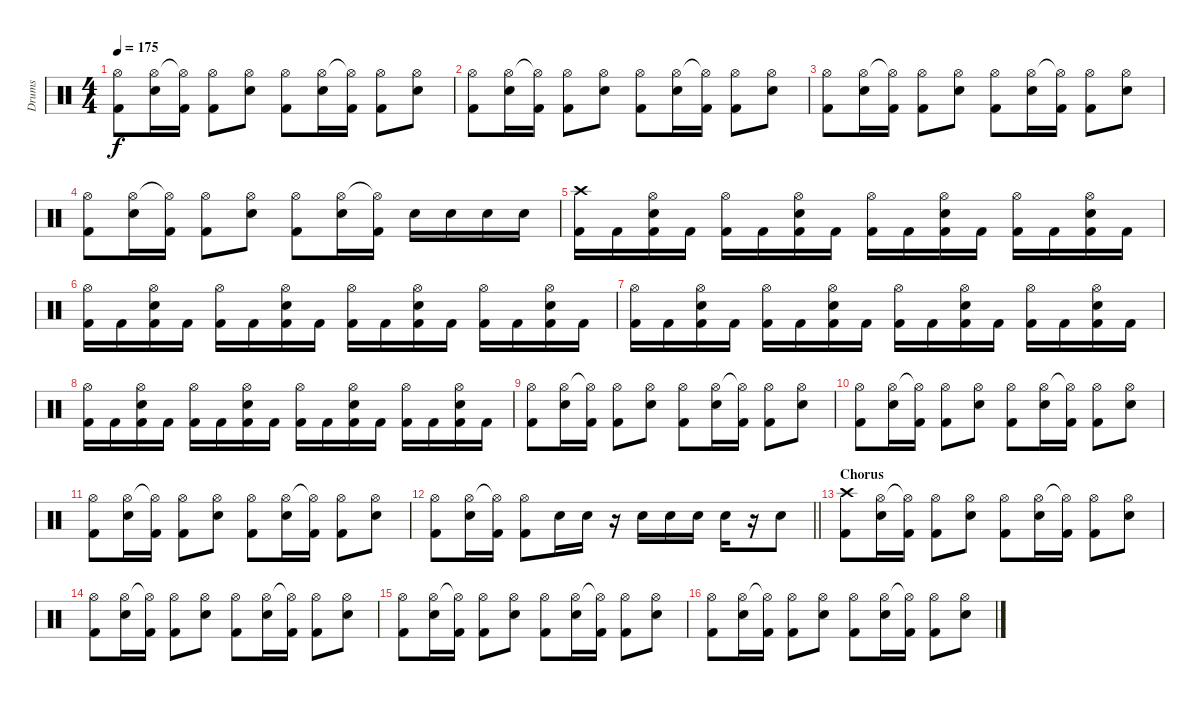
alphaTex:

\track ("Drums" "Drums") {instrument percussion}
\staff {score}
\articulation defaults
\ts (4 4)
\tempo 175
\clef neutral
\ks c
("Hi-Hat (open)" "Kick (hit) 2").8{dy f} ("Hi-Hat (open)" "Electric Snare (hit)").16 ("Hi-Hat (open)"{t} "Kick (hit) 2").16 ("Hi-Hat (open)" "Kick (hit) 2").8 ("Hi-Hat (open)" "Electric Snare (hit)").8 ("Hi-Hat (open)" "Kick (hit) 2").8 ("Hi-Hat (open)" "Electric Snare (hit)").16 ("Hi-Hat (open)"{t} "Kick (hit) 2").16 ("Hi-Hat (open)" "Kick (hit) 2").8 ("Hi-Hat (open)" "Electric Snare (hit)").8 |
("Hi-Hat (open)" "Kick (hit) 2").8 ("Hi-Hat (open)" "Electric Snare (hit)").16 ("Hi-Hat (open)"{t} "Kick (hit) 2").16 ("Hi-Hat (open)" "Kick (hit) 2").8 ("Hi-Hat (open)" "Electric Snare (hit)").8 ("Hi-Hat (open)" "Kick (hit) 2").8 ("Hi-Hat (open)" "Electric Snare (hit)").16 ("Hi-Hat (open)"{t} "Kick (hit) 2").16 ("Hi-Hat (open)" "Kick (hit) 2").8 ("Hi-Hat (open)" "Electric Snare (hit)").8 |
("Hi-Hat (open)" "Kick (hit) 2").8 ("Hi-Hat (open)" "Electric Snare (hit)").16 ("Hi-Hat (open)"{t} "Kick (hit) 2").16 ("Hi-Hat (open)" "Kick (hit) 2").8 ("Hi-Hat (open)" "Electric Snare (hit)").8 ("Hi-Hat (open)" "Kick (hit) 2").8 ("Hi-Hat (open)" "Electric Snare (hit)").16 ("Hi-Hat (open)"{t} "Kick (hit) 2").16 ("Hi-Hat (open)" "Kick (hit) 2").8 ("Hi-Hat (open)" "Electric Snare (hit)").8 |
("Hi-Hat (open)" "Kick (hit) 2").8 ("Hi-Hat (open)" "Electric Snare (hit)").16 ("Hi-Hat (open)"{t} "Kick (hit) 2").16 ("Hi-Hat (open)" "Kick (hit) 2").8 ("Hi-Hat (open)" "Electric Snare (hit)").8 ("Hi-Hat (open)" "Kick (hit) 2").8 ("Hi-Hat (open)" "Electric Snare (hit)").16 ("Hi-Hat (open)"{t} "Kick (hit) 2").16 "Electric Snare (hit)".16 "Electric Snare (hit)".16 "Electric Snare (hit)".16 "Electric Snare (hit)".16 |
("Crash high (hit)" "Kick (hit) 2").16 "Kick (hit) 2".16 ("Hi-Hat (open)" "Electric Snare (hit)" "Kick (hit) 2").16 "Kick (hit) 2".16 ("Hi-Hat (open)" "Kick (hit) 2").16 "Kick (hit) 2".16 ("Hi-Hat (open)" "Electric Snare (hit)" "Kick (hit) 2").16 "Kick (hit) 2".16 ("Hi-Hat (open)" "Kick (hit) 2").16 "Kick (hit) 2".16 ("Hi-Hat (open)" "Electric Snare (hit)" "Kick (hit) 2").16 "Kick (hit) 2".16 ("Hi-Hat (open)" "Kick (hit) 2").16 "Kick (hit) 2".16 ("Hi-Hat (open)" "Electric Snare (hit)" "Kick (hit) 2").16 "Kick (hit) 2".16 |
("Hi-Hat (open)" "Kick (hit) 2").16 "Kick (hit) 2".16 ("Hi-Hat (open)" "Electric Snare (hit)" "Kick (hit) 2").16 "Kick (hit) 2".16 ("Hi-Hat (open)" "Kick (hit) 2").16 "Kick (hit) 2".16 ("Hi-Hat (open)" "Electric Snare (hit)" "Kick (hit) 2").16 "Kick (hit) 2".16 ("Hi-Hat (open)" "Kick (hit) 2").16 "Kick (hit) 2".16 ("Hi-Hat (open)" "Electric Snare (hit)" "Kick (hit) 2").16 "Kick (hit) 2".16 ("Hi-Hat (open)" "Kick (hit) 2").16 "Kick (hit) 2".16 ("Hi-Hat (open)" "Electric Snare (hit)" "Kick (hit) 2").16 "Kick (hit) 2".16 |
("Hi-Hat (open)" "Kick (hit) 2").16 "Kick (hit) 2".16 ("Hi-Hat (open)" "Electric Snare (hit)" "Kick (hit) 2").16 "Kick (hit) 2".16 ("Hi-Hat (open)" "Kick (hit) 2").16 "Kick (hit) 2".16 ("Hi-Hat (open)" "Electric Snare (hit)" "Kick (hit) 2").16 "Kick (hit) 2".16 ("Hi-Hat (open)" "Kick (hit) 2").16 "Kick (hit) 2".16 ("Hi-Hat (open)" "Electric Snare (hit)" "Kick (hit) 2").16 "Kick (hit) 2".16 ("Hi-Hat (open)" "Kick (hit) 2").16 "Kick (hit) 2".16 ("Hi-Hat (open)" "Electric Snare (hit)" "Kick (hit) 2").16 "Kick (hit) 2".16 |
("Hi-Hat (open)" "Kick (hit) 2").16 "Kick (hit) 2".16 ("Hi-Hat (open)" "Electric Snare (hit)" "Kick (hit) 2").16 "Kick (hit) 2".16 ("Hi-Hat (open)" "Kick (hit) 2").16 "Kick (hit) 2".16 ("Hi-Hat (open)" "Electric Snare (hit)" "Kick (hit) 2").16 "Kick (hit) 2".16 ("Hi-Hat (open)" "Kick (hit) 2").16 "Kick (hit) 2".16 ("Hi-Hat (open)" "Electric Snare (hit)" "Kick (hit) 2").16 "Kick (hit) 2".16 ("Hi-Hat (open)" "Kick (hit) 2").16 "Kick (hit) 2".16 ("Hi-Hat (open)" "Electric Snare (hit)" "Kick (hit) 2").16 "Kick (hit) 2".16 |
("Hi-Hat (open)" "Kick (hit) 2").8 ("Hi-Hat (open)" "Electric Snare (hit)").16 ("Hi-Hat (open)"{t} "Kick (hit) 2").16 ("Hi-Hat (open)" "Kick (hit) 2").8 ("Hi-Hat (open)" "Electric Snare (hit)").8 ("Hi-Hat (open)" "Kick (hit) 2").8 ("Hi-Hat (open)" "Electric Snare (hit)").16 ("Hi-Hat (open)"{t} "Kick (hit) 2").16 ("Hi-Hat (open)" "Kick (hit) 2").8 ("Hi-Hat (open)" "Electric Snare (hit)").8 |
("Hi-Hat (open)" "Kick (hit) 2").8 ("Hi-Hat (open)" "Electric Snare (hit)").16 ("Hi-Hat (open)"{t} "Kick (hit) 2").16 ("Hi-Hat (open)" "Kick (hit) 2").8 ("Hi-Hat (open)" "Electric Snare (hit)").8 ("Hi-Hat (open)" "Kick (hit) 2").8 ("Hi-Hat (open)" "Electric Snare (hit)").16 ("Hi-Hat (open)"{t} "Kick (hit) 2").16 ("Hi-Hat (open)" "Kick (hit) 2").8 ("Hi-Hat (open)" "Electric Snare (hit)").8 |
("Hi-Hat (open)" "Kick (hit) 2").8 ("Hi-Hat (open)" "Electric Snare (hit)").16 ("Hi-Hat (open)"{t} "Kick (hit) 2").16 ("Hi-Hat (open)" "Kick (hit) 2").8 ("Hi-Hat (open)" "Electric Snare (hit)").8 ("Hi-Hat (open)" "Kick (hit) 2").8 ("Hi-Hat (open)" "Electric Snare (hit)").16 ("Hi-Hat (open)"{t} "Kick (hit) 2").16 ("Hi-Hat (open)" "Kick (hit) 2").8 ("Hi-Hat (open)" "Electric Snare (hit)").8 |
\barLineRight lightlight
("Hi-Hat (open)" "Kick (hit) 2").8 ("Hi-Hat (open)" "Electric Snare (hit)").16 ("Hi-Hat (open)"{t} "Kick (hit) 2").16 ("Hi-Hat (open)" "Kick (hit) 2").8 "Electric Snare (hit)".16 "Electric Snare (hit)".16 r.16 "Electric Snare (hit)".16 "Electric Snare (hit)".16 "Electric Snare (hit)".16 "Electric Snare (hit)".16 r.16 "Electric Snare (hit)".8 |
\section ("" "Chorus")
("Crash high (hit)" "Kick (hit) 2").8 ("Hi-Hat (open)" "Electric Snare (hit)").16 ("Hi-Hat (open)"{t} "Kick (hit) 2").16 ("Hi-Hat (open)" "Kick (hit) 2").8 ("Hi-Hat (open)" "Electric Snare (hit)").8 ("Hi-Hat (open)" "Kick (hit) 2").8 ("Hi-Hat (open)" "Electric Snare (hit)").16 ("Hi-Hat (open)"{t} "Kick (hit) 2").16 ("Hi-Hat (open)" "Kick (hit) 2").8 ("Hi-Hat (open)" "Electric Snare (hit)").8 |
("Hi-Hat (open)" "Kick (hit) 2").8 ("Hi-Hat (open)" "Electric Snare (hit)").16 ("Hi-Hat (open)"{t} "Kick (hit) 2").16 ("Hi-Hat (open)" "Kick (hit) 2").8 ("Hi-Hat (open)" "Electric Snare (hit)").8 ("Hi-Hat (open)" "Kick (hit) 2").8 ("Hi-Hat (open)" "Electric Snare (hit)").16 ("Hi-Hat (open)"{t} "Kick (hit) 2").16 ("Hi-Hat (open)" "Kick (hit) 2").8 ("Hi-Hat (open)" "Electric Snare (hit)").8 |
("Hi-Hat (open)" "Kick (hit) 2").8 ("Hi-Hat (open)" "Electric Snare (hit)").16 ("Hi-Hat (open)"{t} "Kick (hit) 2").16 ("Hi-Hat (open)" "Kick (hit) 2").8 ("Hi-Hat (open)" "Electric Snare (hit)").8 ("Hi-Hat (open)" "Kick (hit) 2").8 ("Hi-Hat (open)" "Electric Snare (hit)").16 ("Hi-Hat (open)"{t} "Kick (hit) 2").16 ("Hi-Hat (open)" "Kick (hit) 2").8 ("Hi-Hat (open)" "Electric Snare (hit)").8 |
("Hi-Hat (open)" "Kick (hit) 2").8 ("Hi-Hat (open)" "Electric Snare (hit)").16 ("Hi-Hat (open)"{t} "Kick (hit) 2").16 ("Hi-Hat (open)" "Kick (hit) 2").8 ("Hi-Hat (open)" "Electric Snare (hit)").8 ("Hi-Hat (open)" "Kick (hit) 2").8 ("Hi-Hat (open)" "Electric Snare (hit)").16 ("Hi-Hat (open)"{t} "Kick (hit) 2").16 ("Hi-Hat (open)" "Kick (hit) 2").8 ("Hi-Hat (open)" "Electric Snare (hit)").8
